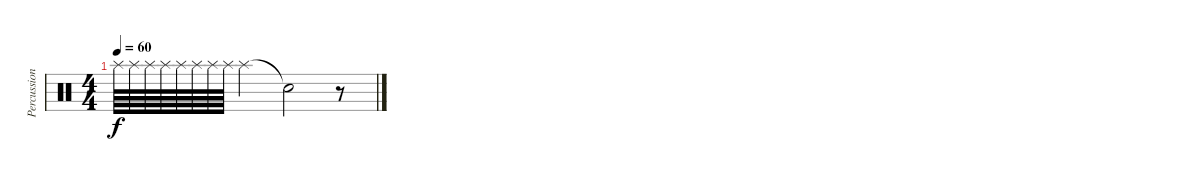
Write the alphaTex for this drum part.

\track ("Percussion" "Percussion") {instrument percussion}
\staff {score}
\articulation defaults
\ts (4 4)
\tempo 60
\clef neutral
\ks c "Splash (hit)".64{dy f} "Splash (hit)".64 "Splash (hit)".64 "Splash (hit)".64 "Splash (hit)".64 "Splash (hit)".64 "Splash (hit)".64 "Splash (hit)".64 "Splash (hit)".4 "Snare (hit)"{t}.2
r.8
